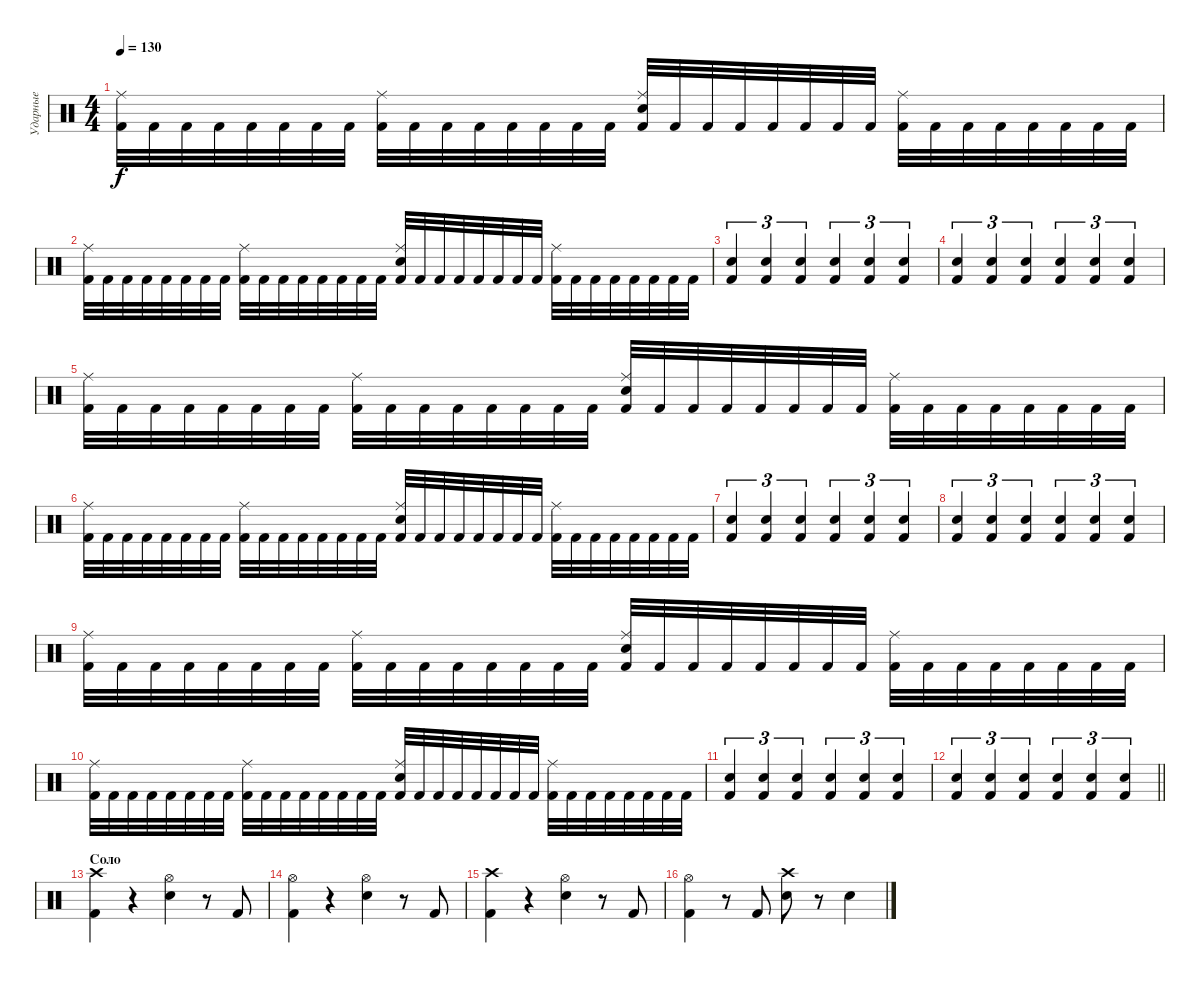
\track ("Ударные" "Ударные") {instrument percussion}
\staff {score}
\articulation defaults
\ts (4 4)
\tempo 130
\clef neutral
\ks c
("Kick (hit) 2" "Ride (middle)").32{dy f} "Kick (hit) 2".32 "Kick (hit) 2".32 "Kick (hit) 2".32 "Kick (hit) 2".32 "Kick (hit) 2".32 "Kick (hit) 2".32 "Kick (hit) 2".32 ("Kick (hit) 2" "Ride (middle)").32 "Kick (hit) 2".32 "Kick (hit) 2".32 "Kick (hit) 2".32 "Kick (hit) 2".32 "Kick (hit) 2".32 "Kick (hit) 2".32 "Kick (hit) 2".32 ("Kick (hit) 2" "Ride (middle)" "Electric Snare (hit)").32 "Kick (hit) 2".32 "Kick (hit) 2".32 "Kick (hit) 2".32 "Kick (hit) 2".32 "Kick (hit) 2".32 "Kick (hit) 2".32 "Kick (hit) 2".32 ("Kick (hit) 2" "Ride (middle)").32 "Kick (hit) 2".32 "Kick (hit) 2".32 "Kick (hit) 2".32 "Kick (hit) 2".32 "Kick (hit) 2".32 "Kick (hit) 2".32 "Kick (hit) 2".32 |
("Kick (hit) 2" "Ride (middle)").32 "Kick (hit) 2".32 "Kick (hit) 2".32 "Kick (hit) 2".32 "Kick (hit) 2".32 "Kick (hit) 2".32 "Kick (hit) 2".32 "Kick (hit) 2".32 ("Kick (hit) 2" "Ride (middle)").32 "Kick (hit) 2".32 "Kick (hit) 2".32 "Kick (hit) 2".32 "Kick (hit) 2".32 "Kick (hit) 2".32 "Kick (hit) 2".32 "Kick (hit) 2".32 ("Kick (hit) 2" "Ride (middle)" "Electric Snare (hit)").32 "Kick (hit) 2".32 "Kick (hit) 2".32 "Kick (hit) 2".32 "Kick (hit) 2".32 "Kick (hit) 2".32 "Kick (hit) 2".32 "Kick (hit) 2".32 ("Kick (hit) 2" "Ride (middle)").32 "Kick (hit) 2".32 "Kick (hit) 2".32 "Kick (hit) 2".32 "Kick (hit) 2".32 "Kick (hit) 2".32 "Kick (hit) 2".32 "Kick (hit) 2".32 |
("Electric Snare (hit)" "Kick (hit) 2").4{tu (3 2)} ("Electric Snare (hit)" "Kick (hit) 2").4{tu (3 2)} ("Electric Snare (hit)" "Kick (hit) 2").4{tu (3 2)} ("Electric Snare (hit)" "Kick (hit) 2").4{tu (3 2)} ("Electric Snare (hit)" "Kick (hit) 2").4{tu (3 2)} ("Electric Snare (hit)" "Kick (hit) 2").4{tu (3 2)} |
("Electric Snare (hit)" "Kick (hit) 2").4{tu (3 2)} ("Electric Snare (hit)" "Kick (hit) 2").4{tu (3 2)} ("Electric Snare (hit)" "Kick (hit) 2").4{tu (3 2)} ("Electric Snare (hit)" "Kick (hit) 2").4{tu (3 2)} ("Electric Snare (hit)" "Kick (hit) 2").4{tu (3 2)} ("Electric Snare (hit)" "Kick (hit) 2").4{tu (3 2)} |
("Kick (hit) 2" "Ride (middle)").32 "Kick (hit) 2".32 "Kick (hit) 2".32 "Kick (hit) 2".32 "Kick (hit) 2".32 "Kick (hit) 2".32 "Kick (hit) 2".32 "Kick (hit) 2".32 ("Kick (hit) 2" "Ride (middle)").32 "Kick (hit) 2".32 "Kick (hit) 2".32 "Kick (hit) 2".32 "Kick (hit) 2".32 "Kick (hit) 2".32 "Kick (hit) 2".32 "Kick (hit) 2".32 ("Kick (hit) 2" "Ride (middle)" "Electric Snare (hit)").32 "Kick (hit) 2".32 "Kick (hit) 2".32 "Kick (hit) 2".32 "Kick (hit) 2".32 "Kick (hit) 2".32 "Kick (hit) 2".32 "Kick (hit) 2".32 ("Kick (hit) 2" "Ride (middle)").32 "Kick (hit) 2".32 "Kick (hit) 2".32 "Kick (hit) 2".32 "Kick (hit) 2".32 "Kick (hit) 2".32 "Kick (hit) 2".32 "Kick (hit) 2".32 |
("Kick (hit) 2" "Ride (middle)").32 "Kick (hit) 2".32 "Kick (hit) 2".32 "Kick (hit) 2".32 "Kick (hit) 2".32 "Kick (hit) 2".32 "Kick (hit) 2".32 "Kick (hit) 2".32 ("Kick (hit) 2" "Ride (middle)").32 "Kick (hit) 2".32 "Kick (hit) 2".32 "Kick (hit) 2".32 "Kick (hit) 2".32 "Kick (hit) 2".32 "Kick (hit) 2".32 "Kick (hit) 2".32 ("Kick (hit) 2" "Ride (middle)" "Electric Snare (hit)").32 "Kick (hit) 2".32 "Kick (hit) 2".32 "Kick (hit) 2".32 "Kick (hit) 2".32 "Kick (hit) 2".32 "Kick (hit) 2".32 "Kick (hit) 2".32 ("Kick (hit) 2" "Ride (middle)").32 "Kick (hit) 2".32 "Kick (hit) 2".32 "Kick (hit) 2".32 "Kick (hit) 2".32 "Kick (hit) 2".32 "Kick (hit) 2".32 "Kick (hit) 2".32 |
("Electric Snare (hit)" "Kick (hit) 2").4{tu (3 2)} ("Electric Snare (hit)" "Kick (hit) 2").4{tu (3 2)} ("Electric Snare (hit)" "Kick (hit) 2").4{tu (3 2)} ("Electric Snare (hit)" "Kick (hit) 2").4{tu (3 2)} ("Electric Snare (hit)" "Kick (hit) 2").4{tu (3 2)} ("Electric Snare (hit)" "Kick (hit) 2").4{tu (3 2)} |
("Electric Snare (hit)" "Kick (hit) 2").4{tu (3 2)} ("Electric Snare (hit)" "Kick (hit) 2").4{tu (3 2)} ("Electric Snare (hit)" "Kick (hit) 2").4{tu (3 2)} ("Electric Snare (hit)" "Kick (hit) 2").4{tu (3 2)} ("Electric Snare (hit)" "Kick (hit) 2").4{tu (3 2)} ("Electric Snare (hit)" "Kick (hit) 2").4{tu (3 2)} |
("Kick (hit) 2" "Ride (middle)").32 "Kick (hit) 2".32 "Kick (hit) 2".32 "Kick (hit) 2".32 "Kick (hit) 2".32 "Kick (hit) 2".32 "Kick (hit) 2".32 "Kick (hit) 2".32 ("Kick (hit) 2" "Ride (middle)").32 "Kick (hit) 2".32 "Kick (hit) 2".32 "Kick (hit) 2".32 "Kick (hit) 2".32 "Kick (hit) 2".32 "Kick (hit) 2".32 "Kick (hit) 2".32 ("Kick (hit) 2" "Ride (middle)" "Electric Snare (hit)").32 "Kick (hit) 2".32 "Kick (hit) 2".32 "Kick (hit) 2".32 "Kick (hit) 2".32 "Kick (hit) 2".32 "Kick (hit) 2".32 "Kick (hit) 2".32 ("Kick (hit) 2" "Ride (middle)").32 "Kick (hit) 2".32 "Kick (hit) 2".32 "Kick (hit) 2".32 "Kick (hit) 2".32 "Kick (hit) 2".32 "Kick (hit) 2".32 "Kick (hit) 2".32 |
("Kick (hit) 2" "Ride (middle)").32 "Kick (hit) 2".32 "Kick (hit) 2".32 "Kick (hit) 2".32 "Kick (hit) 2".32 "Kick (hit) 2".32 "Kick (hit) 2".32 "Kick (hit) 2".32 ("Kick (hit) 2" "Ride (middle)").32 "Kick (hit) 2".32 "Kick (hit) 2".32 "Kick (hit) 2".32 "Kick (hit) 2".32 "Kick (hit) 2".32 "Kick (hit) 2".32 "Kick (hit) 2".32 ("Kick (hit) 2" "Ride (middle)" "Electric Snare (hit)").32 "Kick (hit) 2".32 "Kick (hit) 2".32 "Kick (hit) 2".32 "Kick (hit) 2".32 "Kick (hit) 2".32 "Kick (hit) 2".32 "Kick (hit) 2".32 ("Kick (hit) 2" "Ride (middle)").32 "Kick (hit) 2".32 "Kick (hit) 2".32 "Kick (hit) 2".32 "Kick (hit) 2".32 "Kick (hit) 2".32 "Kick (hit) 2".32 "Kick (hit) 2".32 |
("Electric Snare (hit)" "Kick (hit) 2").4{tu (3 2)} ("Electric Snare (hit)" "Kick (hit) 2").4{tu (3 2)} ("Electric Snare (hit)" "Kick (hit) 2").4{tu (3 2)} ("Electric Snare (hit)" "Kick (hit) 2").4{tu (3 2)} ("Electric Snare (hit)" "Kick (hit) 2").4{tu (3 2)} ("Electric Snare (hit)" "Kick (hit) 2").4{tu (3 2)} |
\barLineRight lightlight
("Electric Snare (hit)" "Kick (hit) 2").4{tu (3 2)} ("Electric Snare (hit)" "Kick (hit) 2").4{tu (3 2)} ("Electric Snare (hit)" "Kick (hit) 2").4{tu (3 2)} ("Electric Snare (hit)" "Kick (hit) 2").4{tu (3 2)} ("Electric Snare (hit)" "Kick (hit) 2").4{tu (3 2)} ("Electric Snare (hit)" "Kick (hit) 2").4{tu (3 2)} |
\section ("" "Соло")
("Kick (hit) 2" "Crash high (hit)").4 r.4 ("Hi-Hat (open)" "Electric Snare (hit)").4 r.8 "Kick (hit) 2".8 |
("Kick (hit) 2" "Hi-Hat (open)").4 r.4 ("Hi-Hat (open)" "Electric Snare (hit)").4 r.8 "Kick (hit) 2".8 |
("Kick (hit) 2" "Crash high (hit)").4 r.4 ("Hi-Hat (open)" "Electric Snare (hit)").4 r.8 "Kick (hit) 2".8 |
("Kick (hit) 2" "Hi-Hat (open)").4 r.8 "Kick (hit) 2".8 ("Electric Snare (hit)" "Crash high (hit)").8 r.8 "Electric Snare (hit)".4
